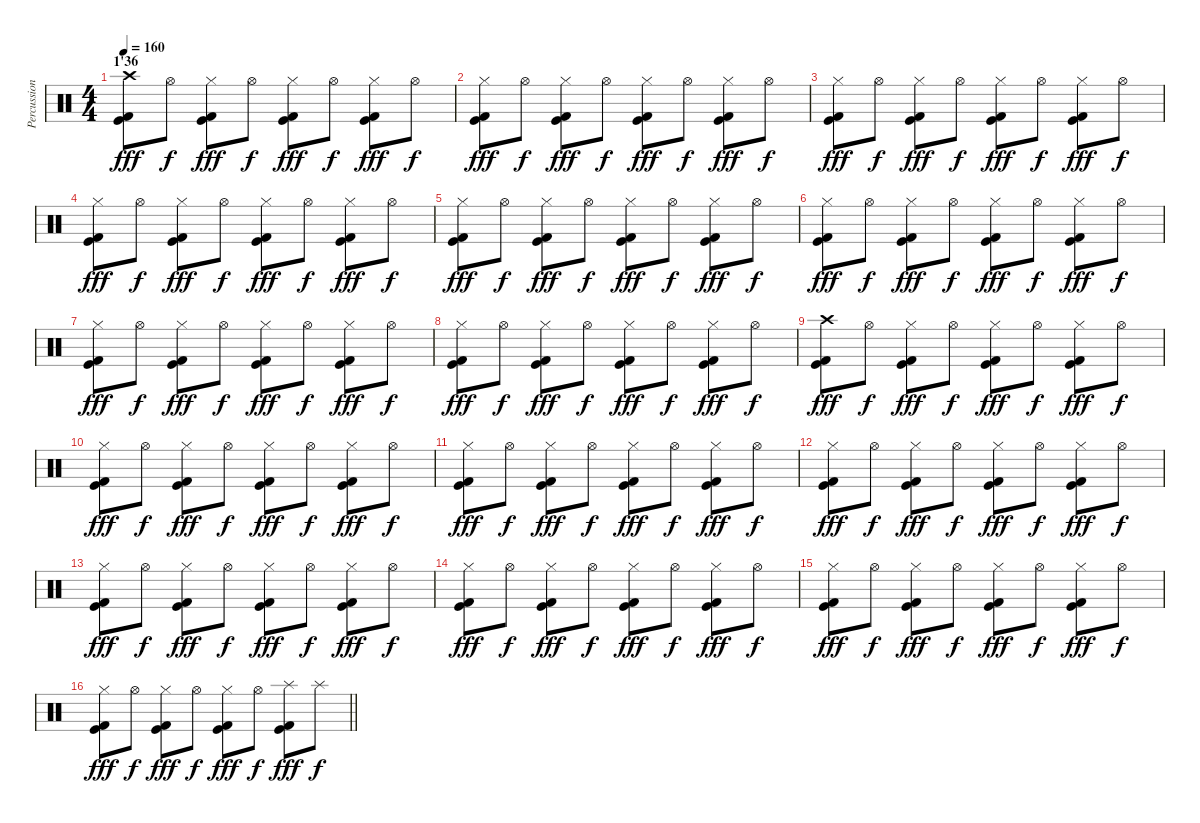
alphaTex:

\track ("Percussions" "Percussion") {instrument percussion}
\staff {score}
\articulation defaults
\ts (4 4)
\section ("" "1'36")
\tempo 160
\clef neutral
\ks c
("Crash high (hit)" "Kick (hit) 2" "Kick (hit)").8{dy fff} "Hi-Hat (open)".8{dy f} ("Hi-Hat (closed)" "Kick (hit) 2" "Kick (hit)").8{dy fff} "Hi-Hat (open)".8{dy f} ("Hi-Hat (closed)" "Kick (hit) 2" "Kick (hit)").8{dy fff} "Hi-Hat (open)".8{dy f} ("Hi-Hat (closed)" "Kick (hit) 2" "Kick (hit)").8{dy fff} "Hi-Hat (open)".8{dy f} |
("Hi-Hat (closed)" "Kick (hit) 2" "Kick (hit)").8{dy fff} "Hi-Hat (open)".8{dy f} ("Hi-Hat (closed)" "Kick (hit) 2" "Kick (hit)").8{dy fff} "Hi-Hat (open)".8{dy f} ("Hi-Hat (closed)" "Kick (hit) 2" "Kick (hit)").8{dy fff} "Hi-Hat (open)".8{dy f} ("Hi-Hat (closed)" "Kick (hit) 2" "Kick (hit)").8{dy fff} "Hi-Hat (open)".8{dy f} |
("Hi-Hat (closed)" "Kick (hit) 2" "Kick (hit)").8{dy fff} "Hi-Hat (open)".8{dy f} ("Hi-Hat (closed)" "Kick (hit) 2" "Kick (hit)").8{dy fff} "Hi-Hat (open)".8{dy f} ("Hi-Hat (closed)" "Kick (hit) 2" "Kick (hit)").8{dy fff} "Hi-Hat (open)".8{dy f} ("Hi-Hat (closed)" "Kick (hit) 2" "Kick (hit)").8{dy fff} "Hi-Hat (open)".8{dy f} |
("Hi-Hat (closed)" "Kick (hit) 2" "Kick (hit)").8{dy fff} "Hi-Hat (open)".8{dy f} ("Hi-Hat (closed)" "Kick (hit) 2" "Kick (hit)").8{dy fff} "Hi-Hat (open)".8{dy f} ("Hi-Hat (closed)" "Kick (hit) 2" "Kick (hit)").8{dy fff} "Hi-Hat (open)".8{dy f} ("Hi-Hat (closed)" "Kick (hit) 2" "Kick (hit)").8{dy fff} "Hi-Hat (open)".8{dy f} |
("Hi-Hat (closed)" "Kick (hit) 2" "Kick (hit)").8{dy fff} "Hi-Hat (open)".8{dy f} ("Hi-Hat (closed)" "Kick (hit) 2" "Kick (hit)").8{dy fff} "Hi-Hat (open)".8{dy f} ("Hi-Hat (closed)" "Kick (hit) 2" "Kick (hit)").8{dy fff} "Hi-Hat (open)".8{dy f} ("Hi-Hat (closed)" "Kick (hit) 2" "Kick (hit)").8{dy fff} "Hi-Hat (open)".8{dy f} |
("Hi-Hat (closed)" "Kick (hit) 2" "Kick (hit)").8{dy fff} "Hi-Hat (open)".8{dy f} ("Hi-Hat (closed)" "Kick (hit) 2" "Kick (hit)").8{dy fff} "Hi-Hat (open)".8{dy f} ("Hi-Hat (closed)" "Kick (hit) 2" "Kick (hit)").8{dy fff} "Hi-Hat (open)".8{dy f} ("Hi-Hat (closed)" "Kick (hit) 2" "Kick (hit)").8{dy fff} "Hi-Hat (open)".8{dy f} |
("Hi-Hat (closed)" "Kick (hit) 2" "Kick (hit)").8{dy fff} "Hi-Hat (open)".8{dy f} ("Hi-Hat (closed)" "Kick (hit) 2" "Kick (hit)").8{dy fff} "Hi-Hat (open)".8{dy f} ("Hi-Hat (closed)" "Kick (hit) 2" "Kick (hit)").8{dy fff} "Hi-Hat (open)".8{dy f} ("Hi-Hat (closed)" "Kick (hit) 2" "Kick (hit)").8{dy fff} "Hi-Hat (open)".8{dy f} |
("Hi-Hat (closed)" "Kick (hit) 2" "Kick (hit)").8{dy fff} "Hi-Hat (open)".8{dy f} ("Hi-Hat (closed)" "Kick (hit) 2" "Kick (hit)").8{dy fff} "Hi-Hat (open)".8{dy f} ("Hi-Hat (closed)" "Kick (hit) 2" "Kick (hit)").8{dy fff} "Hi-Hat (open)".8{dy f} ("Hi-Hat (closed)" "Kick (hit) 2" "Kick (hit)").8{dy fff} "Hi-Hat (open)".8{dy f} |
("Crash high (hit)" "Kick (hit) 2" "Kick (hit)").8{dy fff} "Hi-Hat (open)".8{dy f} ("Hi-Hat (closed)" "Kick (hit) 2" "Kick (hit)").8{dy fff} "Hi-Hat (open)".8{dy f} ("Hi-Hat (closed)" "Kick (hit) 2" "Kick (hit)").8{dy fff} "Hi-Hat (open)".8{dy f} ("Hi-Hat (closed)" "Kick (hit) 2" "Kick (hit)").8{dy fff} "Hi-Hat (open)".8{dy f} |
("Hi-Hat (closed)" "Kick (hit) 2" "Kick (hit)").8{dy fff} "Hi-Hat (open)".8{dy f} ("Hi-Hat (closed)" "Kick (hit) 2" "Kick (hit)").8{dy fff} "Hi-Hat (open)".8{dy f} ("Hi-Hat (closed)" "Kick (hit) 2" "Kick (hit)").8{dy fff} "Hi-Hat (open)".8{dy f} ("Hi-Hat (closed)" "Kick (hit) 2" "Kick (hit)").8{dy fff} "Hi-Hat (open)".8{dy f} |
("Hi-Hat (closed)" "Kick (hit) 2" "Kick (hit)").8{dy fff} "Hi-Hat (open)".8{dy f} ("Hi-Hat (closed)" "Kick (hit) 2" "Kick (hit)").8{dy fff} "Hi-Hat (open)".8{dy f} ("Hi-Hat (closed)" "Kick (hit) 2" "Kick (hit)").8{dy fff} "Hi-Hat (open)".8{dy f} ("Hi-Hat (closed)" "Kick (hit) 2" "Kick (hit)").8{dy fff} "Hi-Hat (open)".8{dy f} |
("Hi-Hat (closed)" "Kick (hit) 2" "Kick (hit)").8{dy fff} "Hi-Hat (open)".8{dy f} ("Hi-Hat (closed)" "Kick (hit) 2" "Kick (hit)").8{dy fff} "Hi-Hat (open)".8{dy f} ("Hi-Hat (closed)" "Kick (hit) 2" "Kick (hit)").8{dy fff} "Hi-Hat (open)".8{dy f} ("Hi-Hat (closed)" "Kick (hit) 2" "Kick (hit)").8{dy fff} "Hi-Hat (open)".8{dy f} |
("Hi-Hat (closed)" "Kick (hit) 2" "Kick (hit)").8{dy fff} "Hi-Hat (open)".8{dy f} ("Hi-Hat (closed)" "Kick (hit) 2" "Kick (hit)").8{dy fff} "Hi-Hat (open)".8{dy f} ("Hi-Hat (closed)" "Kick (hit) 2" "Kick (hit)").8{dy fff} "Hi-Hat (open)".8{dy f} ("Hi-Hat (closed)" "Kick (hit) 2" "Kick (hit)").8{dy fff} "Hi-Hat (open)".8{dy f} |
("Hi-Hat (closed)" "Kick (hit) 2" "Kick (hit)").8{dy fff} "Hi-Hat (open)".8{dy f} ("Hi-Hat (closed)" "Kick (hit) 2" "Kick (hit)").8{dy fff} "Hi-Hat (open)".8{dy f} ("Hi-Hat (closed)" "Kick (hit) 2" "Kick (hit)").8{dy fff} "Hi-Hat (open)".8{dy f} ("Hi-Hat (closed)" "Kick (hit) 2" "Kick (hit)").8{dy fff} "Hi-Hat (open)".8{dy f} |
("Hi-Hat (closed)" "Kick (hit) 2" "Kick (hit)").8{dy fff} "Hi-Hat (open)".8{dy f} ("Hi-Hat (closed)" "Kick (hit) 2" "Kick (hit)").8{dy fff} "Hi-Hat (open)".8{dy f} ("Hi-Hat (closed)" "Kick (hit) 2" "Kick (hit)").8{dy fff} "Hi-Hat (open)".8{dy f} ("Hi-Hat (closed)" "Kick (hit) 2" "Kick (hit)").8{dy fff} "Hi-Hat (open)".8{dy f} |
\barLineRight lightlight
("Hi-Hat (closed)" "Kick (hit) 2" "Kick (hit)").8{dy fff} "Hi-Hat (open)".8{dy f} ("Hi-Hat (closed)" "Kick (hit) 2" "Kick (hit)").8{dy fff} "Hi-Hat (open)".8{dy f} ("Hi-Hat (closed)" "Kick (hit) 2" "Kick (hit)").8{dy fff} "Hi-Hat (open)".8{dy f} ("Splash (hit)" "Kick (hit) 2" "Kick (hit)").8{dy fff} "Splash (hit)".8{dy f}
